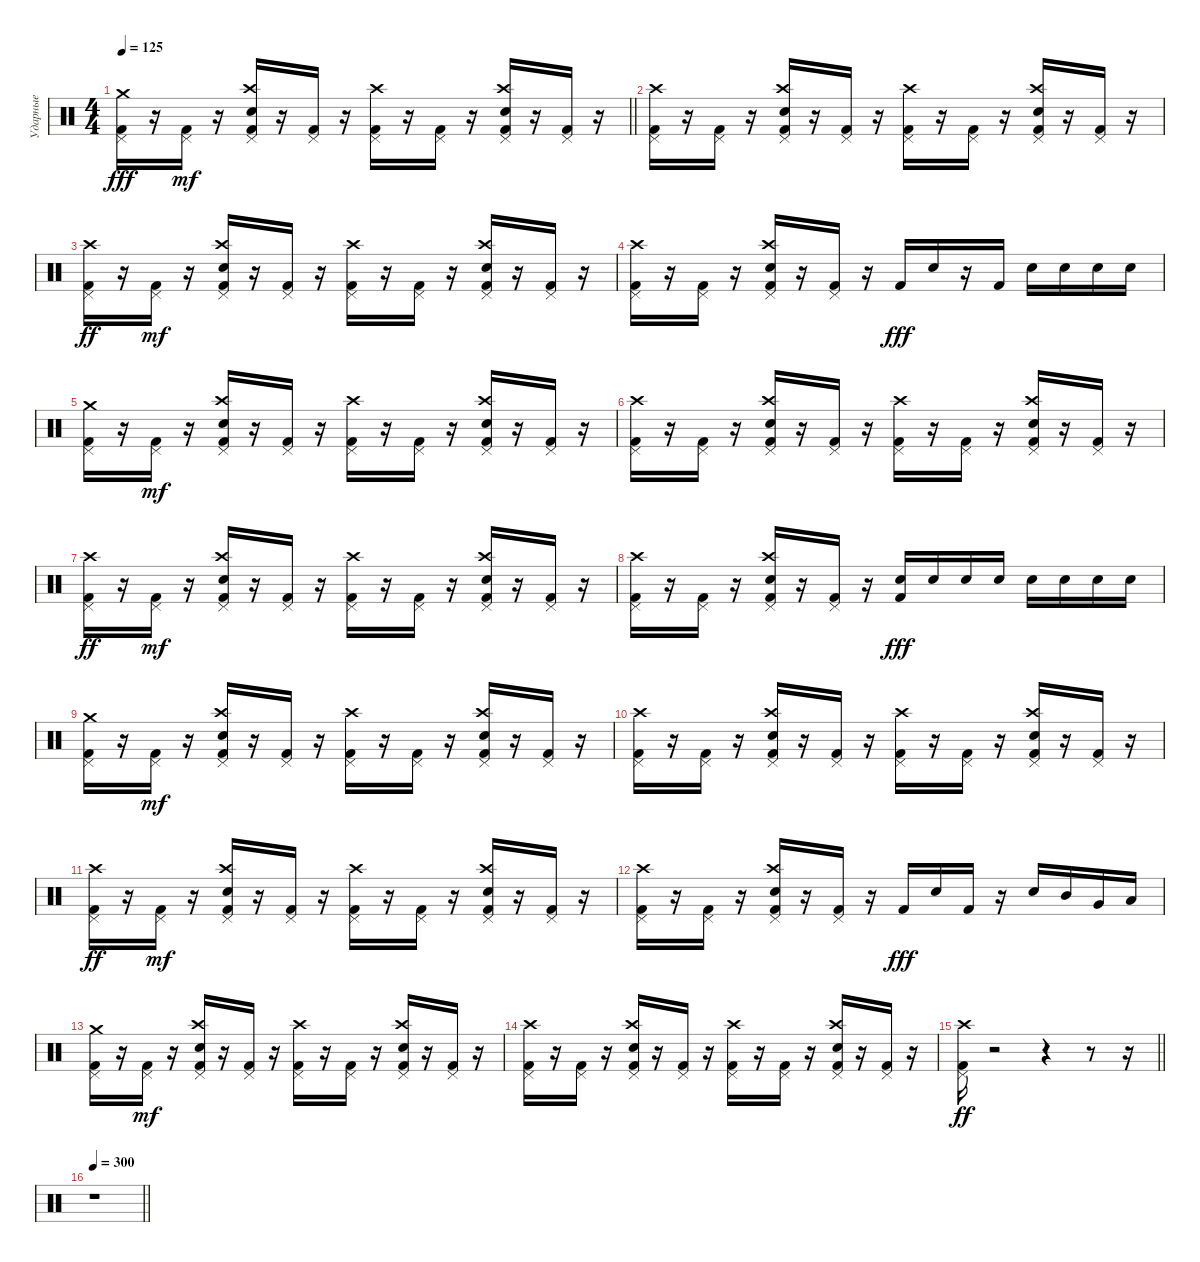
\track ("Ударные" "Ударные") {instrument percussion}
\staff {score}
\articulation defaults
\ts (4 4)
\tempo 125
\clef neutral
\barLineRight lightlight
\ks c
("Kick (hit) 2" "Pedal Hi-Hat (hit)" "Crash medium (hit)").16{dy fff} r.16 ("Kick (hit) 2" "Pedal Hi-Hat (hit)").16{dy mf} r.16 ("Kick (hit) 2" "Crash high (hit)" "Snare (hit) 2" "Pedal Hi-Hat (hit)").16 r.16 ("Kick (hit) 2" "Pedal Hi-Hat (hit)").16 r.16 ("Kick (hit) 2" "Crash high (hit)" "Pedal Hi-Hat (hit)").16 r.16 ("Kick (hit) 2" "Pedal Hi-Hat (hit)").16 r.16 ("Kick (hit) 2" "Crash high (hit)" "Snare (hit) 2" "Pedal Hi-Hat (hit)").16 r.16 ("Kick (hit) 2" "Pedal Hi-Hat (hit)").16 r.16 |
("Kick (hit) 2" "Crash high (hit)" "Pedal Hi-Hat (hit)").16 r.16 ("Kick (hit) 2" "Pedal Hi-Hat (hit)").16 r.16 ("Kick (hit) 2" "Crash high (hit)" "Snare (hit) 2" "Pedal Hi-Hat (hit)").16 r.16 ("Kick (hit) 2" "Pedal Hi-Hat (hit)").16 r.16 ("Kick (hit) 2" "Crash high (hit)" "Pedal Hi-Hat (hit)").16 r.16 ("Kick (hit) 2" "Pedal Hi-Hat (hit)").16 r.16 ("Kick (hit) 2" "Crash high (hit)" "Snare (hit) 2" "Pedal Hi-Hat (hit)").16 r.16 ("Kick (hit) 2" "Pedal Hi-Hat (hit)").16 r.16 |
("Kick (hit) 2" "Pedal Hi-Hat (hit)" "Crash high (hit)").16{dy ff} r.16 ("Kick (hit) 2" "Pedal Hi-Hat (hit)").16{dy mf} r.16 ("Kick (hit) 2" "Crash high (hit)" "Snare (hit) 2" "Pedal Hi-Hat (hit)").16 r.16 ("Kick (hit) 2" "Pedal Hi-Hat (hit)").16 r.16 ("Kick (hit) 2" "Crash high (hit)" "Pedal Hi-Hat (hit)").16 r.16 ("Kick (hit) 2" "Pedal Hi-Hat (hit)").16 r.16 ("Kick (hit) 2" "Crash high (hit)" "Snare (hit) 2" "Pedal Hi-Hat (hit)").16 r.16 ("Kick (hit) 2" "Pedal Hi-Hat (hit)").16 r.16 |
("Kick (hit) 2" "Crash high (hit)" "Pedal Hi-Hat (hit)").16 r.16 ("Kick (hit) 2" "Pedal Hi-Hat (hit)").16 r.16 ("Kick (hit) 2" "Crash high (hit)" "Snare (hit) 2" "Pedal Hi-Hat (hit)").16 r.16 ("Kick (hit) 2" "Pedal Hi-Hat (hit)").16 r.16 "Kick (hit) 2".16{dy fff} "Snare (hit) 2".16 r.16 "Kick (hit) 2".16 "Snare (hit) 2".16 "Snare (hit) 2".16 "Snare (hit) 2".16 "Snare (hit) 2".16 |
("Kick (hit) 2" "Pedal Hi-Hat (hit)" "Crash medium (hit)").16 r.16 ("Kick (hit) 2" "Pedal Hi-Hat (hit)").16{dy mf} r.16 ("Kick (hit) 2" "Crash high (hit)" "Snare (hit) 2" "Pedal Hi-Hat (hit)").16 r.16 ("Kick (hit) 2" "Pedal Hi-Hat (hit)").16 r.16 ("Kick (hit) 2" "Crash high (hit)" "Pedal Hi-Hat (hit)").16 r.16 ("Kick (hit) 2" "Pedal Hi-Hat (hit)").16 r.16 ("Kick (hit) 2" "Crash high (hit)" "Snare (hit) 2" "Pedal Hi-Hat (hit)").16 r.16 ("Kick (hit) 2" "Pedal Hi-Hat (hit)").16 r.16 |
("Kick (hit) 2" "Crash high (hit)" "Pedal Hi-Hat (hit)").16 r.16 ("Kick (hit) 2" "Pedal Hi-Hat (hit)").16 r.16 ("Kick (hit) 2" "Crash high (hit)" "Snare (hit) 2" "Pedal Hi-Hat (hit)").16 r.16 ("Kick (hit) 2" "Pedal Hi-Hat (hit)").16 r.16 ("Kick (hit) 2" "Crash high (hit)" "Pedal Hi-Hat (hit)").16 r.16 ("Kick (hit) 2" "Pedal Hi-Hat (hit)").16 r.16 ("Kick (hit) 2" "Crash high (hit)" "Snare (hit) 2" "Pedal Hi-Hat (hit)").16 r.16 ("Kick (hit) 2" "Pedal Hi-Hat (hit)").16 r.16 |
("Kick (hit) 2" "Pedal Hi-Hat (hit)" "Crash high (hit)").16{dy ff} r.16 ("Kick (hit) 2" "Pedal Hi-Hat (hit)").16{dy mf} r.16 ("Kick (hit) 2" "Crash high (hit)" "Snare (hit) 2" "Pedal Hi-Hat (hit)").16 r.16 ("Kick (hit) 2" "Pedal Hi-Hat (hit)").16 r.16 ("Kick (hit) 2" "Crash high (hit)" "Pedal Hi-Hat (hit)").16 r.16 ("Kick (hit) 2" "Pedal Hi-Hat (hit)").16 r.16 ("Kick (hit) 2" "Crash high (hit)" "Snare (hit) 2" "Pedal Hi-Hat (hit)").16 r.16 ("Kick (hit) 2" "Pedal Hi-Hat (hit)").16 r.16 |
("Kick (hit) 2" "Crash high (hit)" "Pedal Hi-Hat (hit)").16 r.16 ("Kick (hit) 2" "Pedal Hi-Hat (hit)").16 r.16 ("Kick (hit) 2" "Crash high (hit)" "Snare (hit) 2" "Pedal Hi-Hat (hit)").16 r.16 ("Kick (hit) 2" "Pedal Hi-Hat (hit)").16 r.16 ("Kick (hit) 2" "Snare (hit) 2").16{dy fff} "Snare (hit) 2".16 "Snare (hit) 2".16 "Snare (hit) 2".16 "Snare (hit) 2".16 "Snare (hit) 2".16 "Snare (hit) 2".16 "Snare (hit) 2".16 |
("Kick (hit) 2" "Pedal Hi-Hat (hit)" "Crash medium (hit)").16 r.16 ("Kick (hit) 2" "Pedal Hi-Hat (hit)").16{dy mf} r.16 ("Kick (hit) 2" "Crash high (hit)" "Snare (hit) 2" "Pedal Hi-Hat (hit)").16 r.16 ("Kick (hit) 2" "Pedal Hi-Hat (hit)").16 r.16 ("Kick (hit) 2" "Crash high (hit)" "Pedal Hi-Hat (hit)").16 r.16 ("Kick (hit) 2" "Pedal Hi-Hat (hit)").16 r.16 ("Kick (hit) 2" "Crash high (hit)" "Snare (hit) 2" "Pedal Hi-Hat (hit)").16 r.16 ("Kick (hit) 2" "Pedal Hi-Hat (hit)").16 r.16 |
("Kick (hit) 2" "Crash high (hit)" "Pedal Hi-Hat (hit)").16 r.16 ("Kick (hit) 2" "Pedal Hi-Hat (hit)").16 r.16 ("Kick (hit) 2" "Crash high (hit)" "Snare (hit) 2" "Pedal Hi-Hat (hit)").16 r.16 ("Kick (hit) 2" "Pedal Hi-Hat (hit)").16 r.16 ("Kick (hit) 2" "Crash high (hit)" "Pedal Hi-Hat (hit)").16 r.16 ("Kick (hit) 2" "Pedal Hi-Hat (hit)").16 r.16 ("Kick (hit) 2" "Crash high (hit)" "Snare (hit) 2" "Pedal Hi-Hat (hit)").16 r.16 ("Kick (hit) 2" "Pedal Hi-Hat (hit)").16 r.16 |
("Kick (hit) 2" "Pedal Hi-Hat (hit)" "Crash high (hit)").16{dy ff} r.16 ("Kick (hit) 2" "Pedal Hi-Hat (hit)").16{dy mf} r.16 ("Kick (hit) 2" "Crash high (hit)" "Snare (hit) 2" "Pedal Hi-Hat (hit)").16 r.16 ("Kick (hit) 2" "Pedal Hi-Hat (hit)").16 r.16 ("Kick (hit) 2" "Crash high (hit)" "Pedal Hi-Hat (hit)").16 r.16 ("Kick (hit) 2" "Pedal Hi-Hat (hit)").16 r.16 ("Kick (hit) 2" "Crash high (hit)" "Snare (hit) 2" "Pedal Hi-Hat (hit)").16 r.16 ("Kick (hit) 2" "Pedal Hi-Hat (hit)").16 r.16 |
("Kick (hit) 2" "Crash high (hit)" "Pedal Hi-Hat (hit)").16 r.16 ("Kick (hit) 2" "Pedal Hi-Hat (hit)").16 r.16 ("Kick (hit) 2" "Crash high (hit)" "Snare (hit) 2" "Pedal Hi-Hat (hit)").16 r.16 ("Kick (hit) 2" "Pedal Hi-Hat (hit)").16 r.16 "Kick (hit) 2".16{dy fff} "Snare (hit) 2".16 "Kick (hit) 2".16 r.16 "Snare (hit) 2".16 "Mid Tom (hit)".16 "Very Low Tom (hit)".16 "Low Floor Tom (hit)".16 |
("Kick (hit) 2" "Pedal Hi-Hat (hit)" "Crash medium (hit)").16 r.16 ("Kick (hit) 2" "Pedal Hi-Hat (hit)").16{dy mf} r.16 ("Kick (hit) 2" "Crash high (hit)" "Snare (hit) 2" "Pedal Hi-Hat (hit)").16 r.16 ("Kick (hit) 2" "Pedal Hi-Hat (hit)").16 r.16 ("Kick (hit) 2" "Crash high (hit)" "Pedal Hi-Hat (hit)").16 r.16 ("Kick (hit) 2" "Pedal Hi-Hat (hit)").16 r.16 ("Kick (hit) 2" "Crash high (hit)" "Snare (hit) 2" "Pedal Hi-Hat (hit)").16 r.16 ("Kick (hit) 2" "Pedal Hi-Hat (hit)").16 r.16 |
("Kick (hit) 2" "Crash high (hit)" "Pedal Hi-Hat (hit)").16 r.16 ("Kick (hit) 2" "Pedal Hi-Hat (hit)").16 r.16 ("Kick (hit) 2" "Crash high (hit)" "Snare (hit) 2" "Pedal Hi-Hat (hit)").16 r.16 ("Kick (hit) 2" "Pedal Hi-Hat (hit)").16 r.16 ("Kick (hit) 2" "Crash high (hit)" "Pedal Hi-Hat (hit)").16 r.16 ("Kick (hit) 2" "Pedal Hi-Hat (hit)").16 r.16 ("Kick (hit) 2" "Crash high (hit)" "Snare (hit) 2" "Pedal Hi-Hat (hit)").16 r.16 ("Kick (hit) 2" "Pedal Hi-Hat (hit)").16 r.16 |
\barLineRight lightlight
("Kick (hit) 2" "Pedal Hi-Hat (hit)" "Crash high (hit)").16{dy ff} r.2 r.4 r.8 r.16 |
\tempo 300
\barLineRight lightlight
r.1
